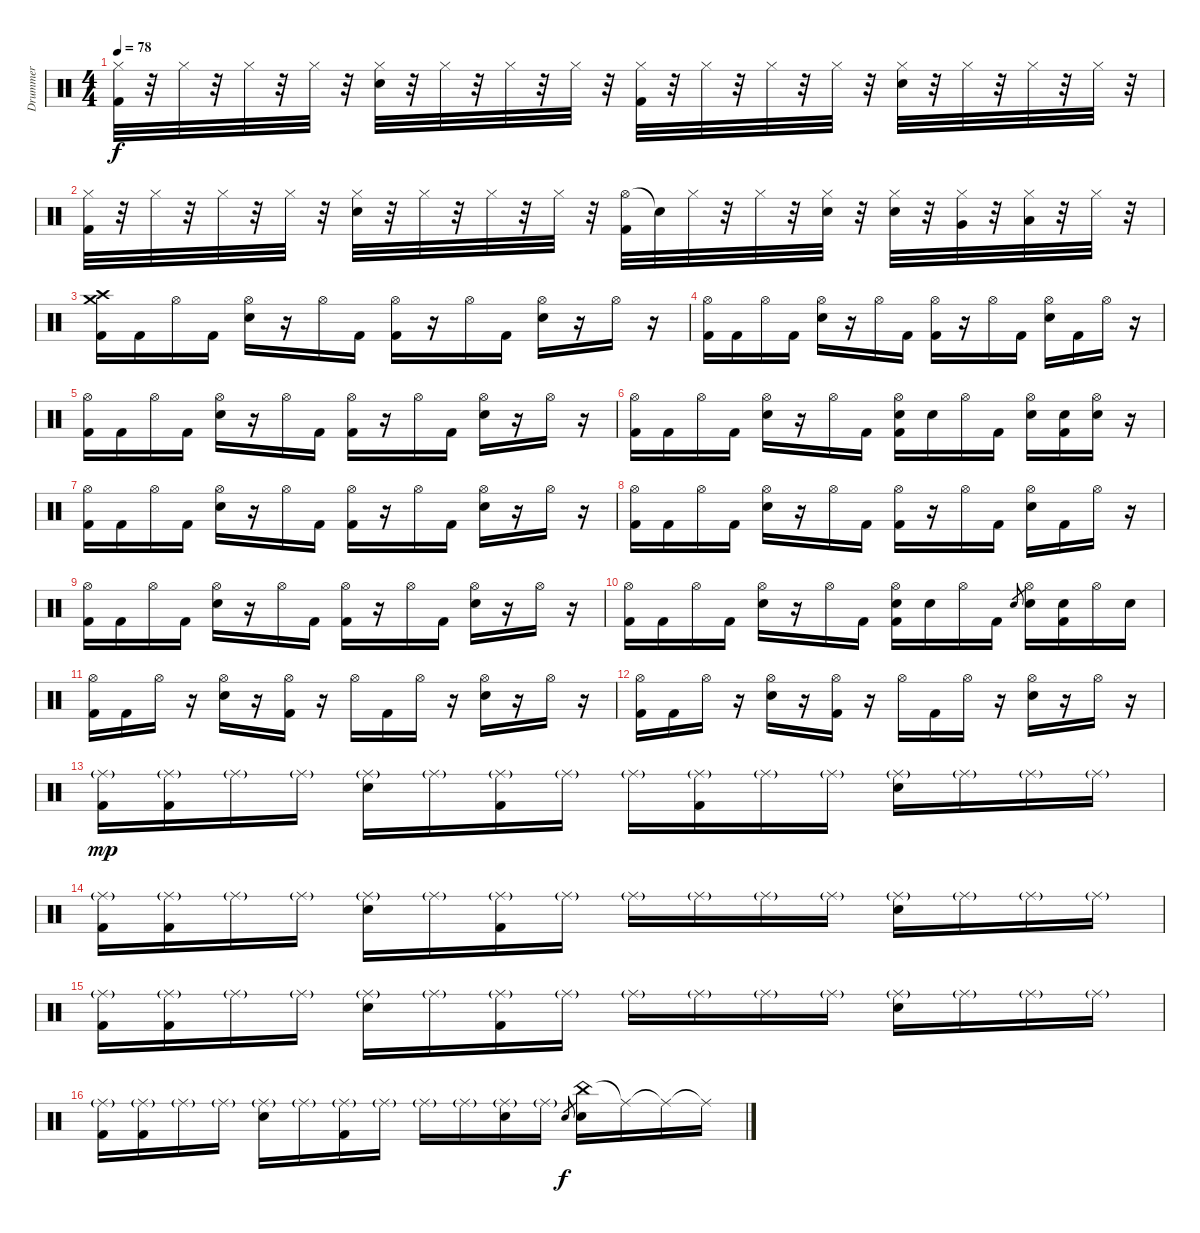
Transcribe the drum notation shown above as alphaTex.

\track ("Drummer" "Drummer") {instrument percussion}
\staff {score}
\articulation defaults
\ts (4 4)
\tempo 78
\clef neutral
\ks c
("Hi-Hat (closed)" "Kick (hit) 2").32{dy f} r.32 "Hi-Hat (closed)".32 r.32 "Hi-Hat (closed)".32 r.32 "Hi-Hat (closed)".32 r.32 ("Hi-Hat (closed)" "Snare (hit) 2").32 r.32 "Hi-Hat (closed)".32 r.32 "Hi-Hat (closed)".32 r.32 "Hi-Hat (closed)".32 r.32 ("Hi-Hat (closed)" "Kick (hit) 2").32 r.32 "Hi-Hat (closed)".32 r.32 "Hi-Hat (closed)".32 r.32 "Hi-Hat (closed)".32 r.32 ("Hi-Hat (closed)" "Snare (hit) 2").32 r.32 "Hi-Hat (closed)".32 r.32 "Hi-Hat (closed)".32 r.32 "Hi-Hat (closed)".32 r.32 |
("Hi-Hat (closed)" "Kick (hit) 2").32 r.32 "Hi-Hat (closed)".32 r.32 "Hi-Hat (closed)".32 r.32 "Hi-Hat (closed)".32 r.32 ("Hi-Hat (closed)" "Snare (hit) 2").32 r.32 "Hi-Hat (closed)".32 r.32 "Hi-Hat (closed)".32 r.32 "Hi-Hat (closed)".32 r.32 ("Hi-Hat (open)" "Kick (hit) 2").32 "Snare (hit)"{t}.32 "Hi-Hat (closed)".32 r.32 "Hi-Hat (closed)".32 r.32 ("Hi-Hat (closed)" "Snare (hit) 2").32 r.32 ("Hi-Hat (closed)" "Snare (hit) 2").32 r.32 ("Hi-Hat (closed)" "Very Low Tom (hit)").32 r.32 ("Hi-Hat (closed)" "Low Floor Tom (hit)").32 r.32 "Hi-Hat (closed)".32 r.32 |
("Crash high (hit)" "Crash medium (hit)" "Kick (hit) 2").16 "Kick (hit) 2".16 "Hi-Hat (open)".16 "Kick (hit) 2".16 ("Hi-Hat (open)" "Snare (hit) 2").16 r.16 "Hi-Hat (open)".16 "Kick (hit) 2".16 ("Hi-Hat (open)" "Kick (hit) 2").16 r.16 "Hi-Hat (open)".16 "Kick (hit) 2".16 ("Hi-Hat (open)" "Snare (hit) 2").16 r.16 "Hi-Hat (open)".16 r.16 |
("Hi-Hat (open)" "Kick (hit) 2").16 "Kick (hit) 2".16 "Hi-Hat (open)".16 "Kick (hit) 2".16 ("Hi-Hat (open)" "Snare (hit) 2").16 r.16 "Hi-Hat (open)".16 "Kick (hit) 2".16 ("Hi-Hat (open)" "Kick (hit) 2").16 r.16 "Hi-Hat (open)".16 "Kick (hit) 2".16 ("Hi-Hat (open)" "Snare (hit) 2").16 "Kick (hit) 2".16 "Hi-Hat (open)".16 r.16 |
("Hi-Hat (open)" "Kick (hit) 2").16 "Kick (hit) 2".16 "Hi-Hat (open)".16 "Kick (hit) 2".16 ("Hi-Hat (open)" "Snare (hit) 2").16 r.16 "Hi-Hat (open)".16 "Kick (hit) 2".16 ("Hi-Hat (open)" "Kick (hit) 2").16 r.16 "Hi-Hat (open)".16 "Kick (hit) 2".16 ("Hi-Hat (open)" "Snare (hit) 2").16 r.16 "Hi-Hat (open)".16 r.16 |
("Hi-Hat (open)" "Kick (hit) 2").16 "Kick (hit) 2".16 "Hi-Hat (open)".16 "Kick (hit) 2".16 ("Hi-Hat (open)" "Snare (hit) 2").16 r.16 "Hi-Hat (open)".16 "Kick (hit) 2".16 ("Hi-Hat (open)" "Snare (hit) 2" "Kick (hit) 2").16 "Snare (hit) 2".16 "Hi-Hat (open)".16 "Kick (hit) 2".16 ("Hi-Hat (open)" "Snare (hit) 2").16 ("Snare (hit) 2" "Kick (hit) 2").16 ("Hi-Hat (open)" "Snare (hit) 2").16 r.16 |
("Hi-Hat (open)" "Kick (hit) 2").16 "Kick (hit) 2".16 "Hi-Hat (open)".16 "Kick (hit) 2".16 ("Hi-Hat (open)" "Snare (hit) 2").16 r.16 "Hi-Hat (open)".16 "Kick (hit) 2".16 ("Hi-Hat (open)" "Kick (hit) 2").16 r.16 "Hi-Hat (open)".16 "Kick (hit) 2".16 ("Hi-Hat (open)" "Snare (hit) 2").16 r.16 "Hi-Hat (open)".16 r.16 |
("Hi-Hat (open)" "Kick (hit) 2").16 "Kick (hit) 2".16 "Hi-Hat (open)".16 "Kick (hit) 2".16 ("Hi-Hat (open)" "Snare (hit) 2").16 r.16 "Hi-Hat (open)".16 "Kick (hit) 2".16 ("Hi-Hat (open)" "Kick (hit) 2").16 r.16 "Hi-Hat (open)".16 "Kick (hit) 2".16 ("Hi-Hat (open)" "Snare (hit) 2").16 "Kick (hit) 2".16 "Hi-Hat (open)".16 r.16 |
("Hi-Hat (open)" "Kick (hit) 2").16 "Kick (hit) 2".16 "Hi-Hat (open)".16 "Kick (hit) 2".16 ("Hi-Hat (open)" "Snare (hit) 2").16 r.16 "Hi-Hat (open)".16 "Kick (hit) 2".16 ("Hi-Hat (open)" "Kick (hit) 2").16 r.16 "Hi-Hat (open)".16 "Kick (hit) 2".16 ("Hi-Hat (open)" "Snare (hit) 2").16 r.16 "Hi-Hat (open)".16 r.16 |
("Hi-Hat (open)" "Kick (hit) 2").16 "Kick (hit) 2".16 "Hi-Hat (open)".16 "Kick (hit) 2".16 ("Hi-Hat (open)" "Snare (hit) 2").16 r.16 "Hi-Hat (open)".16 "Kick (hit) 2".16 ("Hi-Hat (open)" "Snare (hit) 2" "Kick (hit) 2").16 "Snare (hit) 2".16 "Hi-Hat (open)".16 "Kick (hit) 2".16 "Snare (hit) 2".8{gr} ("Hi-Hat (open)" "Snare (hit) 2").16 ("Snare (hit) 2" "Kick (hit) 2").16 "Hi-Hat (open)".16 "Snare (hit) 2".16 |
("Hi-Hat (open)" "Kick (hit) 2").16 "Kick (hit) 2".16 "Hi-Hat (open)".16 r.16 ("Hi-Hat (open)" "Snare (hit) 2").16 r.16 ("Hi-Hat (open)" "Kick (hit) 2").16 r.16 "Hi-Hat (open)".16 "Kick (hit) 2".16 "Hi-Hat (open)".16 r.16 ("Hi-Hat (open)" "Snare (hit) 2").16 r.16 "Hi-Hat (open)".16 r.16 |
("Hi-Hat (open)" "Kick (hit) 2").16 "Kick (hit) 2".16 "Hi-Hat (open)".16 r.16 ("Hi-Hat (open)" "Snare (hit) 2").16 r.16 ("Hi-Hat (open)" "Kick (hit) 2").16 r.16 "Hi-Hat (open)".16 "Kick (hit) 2".16 "Hi-Hat (open)".16 r.16 ("Hi-Hat (open)" "Snare (hit) 2").16 r.16 "Hi-Hat (open)".16 r.16 |
("Ride (middle)"{g} "Kick (hit) 2").16{dy mp} ("Ride (middle)"{g} "Kick (hit) 2").16 "Ride (middle)"{g}.16 "Ride (middle)"{g}.16 ("Ride (middle)"{g} "Snare (hit) 2").16 "Ride (middle)"{g}.16 ("Ride (middle)"{g} "Kick (hit) 2").16 "Ride (middle)"{g}.16 "Ride (middle)"{g}.16 ("Ride (middle)"{g} "Kick (hit) 2").16 "Ride (middle)"{g}.16 "Ride (middle)"{g}.16 ("Ride (middle)"{g} "Snare (hit) 2").16 "Ride (middle)"{g}.16 "Ride (middle)"{g}.16 "Ride (middle)"{g}.16 |
("Ride (middle)"{g} "Kick (hit) 2").16 ("Ride (middle)"{g} "Kick (hit) 2").16 "Ride (middle)"{g}.16 "Ride (middle)"{g}.16 ("Ride (middle)"{g} "Snare (hit) 2").16 "Ride (middle)"{g}.16 ("Ride (middle)"{g} "Kick (hit) 2").16 "Ride (middle)"{g}.16 "Ride (middle)"{g}.16 "Ride (middle)"{g}.16 "Ride (middle)"{g}.16 "Ride (middle)"{g}.16 ("Ride (middle)"{g} "Snare (hit) 2").16 "Ride (middle)"{g}.16 "Ride (middle)"{g}.16 "Ride (middle)"{g}.16 |
("Ride (middle)"{g} "Kick (hit) 2").16 ("Ride (middle)"{g} "Kick (hit) 2").16 "Ride (middle)"{g}.16 "Ride (middle)"{g}.16 ("Ride (middle)"{g} "Snare (hit) 2").16 "Ride (middle)"{g}.16 ("Ride (middle)"{g} "Kick (hit) 2").16 "Ride (middle)"{g}.16 "Ride (middle)"{g}.16 "Ride (middle)"{g}.16 "Ride (middle)"{g}.16 "Ride (middle)"{g}.16 ("Ride (middle)"{g} "Snare (hit) 2").16 "Ride (middle)"{g}.16 "Ride (middle)"{g}.16 "Ride (middle)"{g}.16 |
("Ride (middle)"{g} "Kick (hit) 2").16 ("Ride (middle)"{g} "Kick (hit) 2").16 "Ride (middle)"{g}.16 "Ride (middle)"{g}.16 ("Ride (middle)"{g} "Snare (hit) 2").16 "Ride (middle)"{g}.16 ("Ride (middle)"{g} "Kick (hit) 2").16 "Ride (middle)"{g}.16 "Ride (middle)"{g}.16 "Ride (middle)"{g}.16 ("Ride (middle)"{g} "Snare (hit) 2").16 "Ride (middle)"{g}.16 "Snare (hit) 2".8{gr dy f} ("China (hit)" "Snare (hit) 2").16 "Ride (middle)"{t}.16 "Ride (middle)"{t}.16 "Ride (middle)"{t}.16
